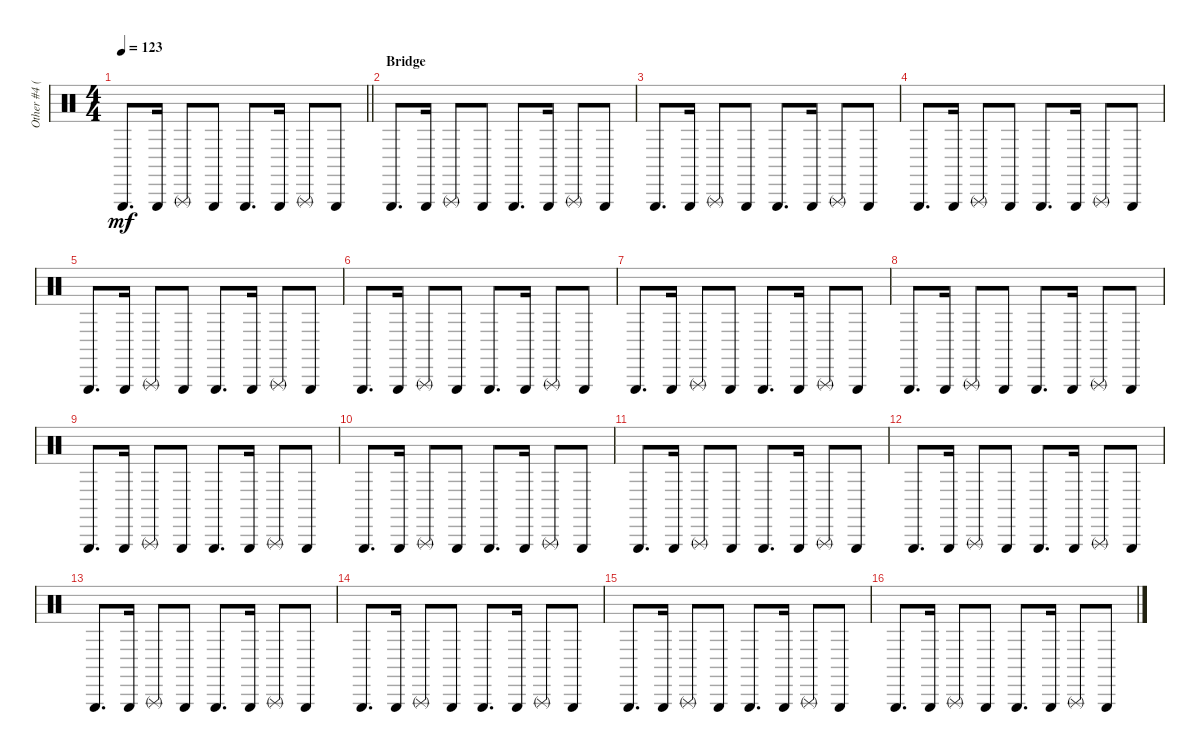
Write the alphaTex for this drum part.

\track ("Other #4 (Triangle)" "Other #4 (") {instrument percussion}
\staff {score}
\articulation defaults
\ts (4 4)
\tempo 123
\clef neutral
\barLineRight lightlight
\ks c "Triangle (hit)".8{d dy mf} "Triangle (hit)".16 "Triangle (rnute)".8 "Triangle (hit)".8 "Triangle (hit)".8{d} "Triangle (hit)".16 "Triangle (rnute)".8 "Triangle (hit)".8
|
\section ("" "Bridge")
"Triangle (hit)".8{d} "Triangle (hit)".16 "Triangle (rnute)".8 "Triangle (hit)".8 "Triangle (hit)".8{d} "Triangle (hit)".16 "Triangle (rnute)".8 "Triangle (hit)".8 |
"Triangle (hit)".8{d} "Triangle (hit)".16 "Triangle (rnute)".8 "Triangle (hit)".8 "Triangle (hit)".8{d} "Triangle (hit)".16 "Triangle (rnute)".8 "Triangle (hit)".8 |
"Triangle (hit)".8{d} "Triangle (hit)".16 "Triangle (rnute)".8 "Triangle (hit)".8 "Triangle (hit)".8{d} "Triangle (hit)".16 "Triangle (rnute)".8 "Triangle (hit)".8 |
"Triangle (hit)".8{d} "Triangle (hit)".16 "Triangle (rnute)".8 "Triangle (hit)".8 "Triangle (hit)".8{d} "Triangle (hit)".16 "Triangle (rnute)".8 "Triangle (hit)".8 |
"Triangle (hit)".8{d} "Triangle (hit)".16 "Triangle (rnute)".8 "Triangle (hit)".8 "Triangle (hit)".8{d} "Triangle (hit)".16 "Triangle (rnute)".8 "Triangle (hit)".8 |
"Triangle (hit)".8{d} "Triangle (hit)".16 "Triangle (rnute)".8 "Triangle (hit)".8 "Triangle (hit)".8{d} "Triangle (hit)".16 "Triangle (rnute)".8 "Triangle (hit)".8 |
"Triangle (hit)".8{d} "Triangle (hit)".16 "Triangle (rnute)".8 "Triangle (hit)".8 "Triangle (hit)".8{d} "Triangle (hit)".16 "Triangle (rnute)".8 "Triangle (hit)".8 |
"Triangle (hit)".8{d} "Triangle (hit)".16 "Triangle (rnute)".8 "Triangle (hit)".8 "Triangle (hit)".8{d} "Triangle (hit)".16 "Triangle (rnute)".8 "Triangle (hit)".8 |
"Triangle (hit)".8{d} "Triangle (hit)".16 "Triangle (rnute)".8 "Triangle (hit)".8 "Triangle (hit)".8{d} "Triangle (hit)".16 "Triangle (rnute)".8 "Triangle (hit)".8 |
"Triangle (hit)".8{d} "Triangle (hit)".16 "Triangle (rnute)".8 "Triangle (hit)".8 "Triangle (hit)".8{d} "Triangle (hit)".16 "Triangle (rnute)".8 "Triangle (hit)".8 |
"Triangle (hit)".8{d} "Triangle (hit)".16 "Triangle (rnute)".8 "Triangle (hit)".8 "Triangle (hit)".8{d} "Triangle (hit)".16 "Triangle (rnute)".8 "Triangle (hit)".8 |
"Triangle (hit)".8{d} "Triangle (hit)".16 "Triangle (rnute)".8 "Triangle (hit)".8 "Triangle (hit)".8{d} "Triangle (hit)".16 "Triangle (rnute)".8 "Triangle (hit)".8 |
"Triangle (hit)".8{d} "Triangle (hit)".16 "Triangle (rnute)".8 "Triangle (hit)".8 "Triangle (hit)".8{d} "Triangle (hit)".16 "Triangle (rnute)".8 "Triangle (hit)".8 |
"Triangle (hit)".8{d} "Triangle (hit)".16 "Triangle (rnute)".8 "Triangle (hit)".8 "Triangle (hit)".8{d} "Triangle (hit)".16 "Triangle (rnute)".8 "Triangle (hit)".8 |
"Triangle (hit)".8{d} "Triangle (hit)".16 "Triangle (rnute)".8 "Triangle (hit)".8 "Triangle (hit)".8{d} "Triangle (hit)".16 "Triangle (rnute)".8 "Triangle (hit)".8
